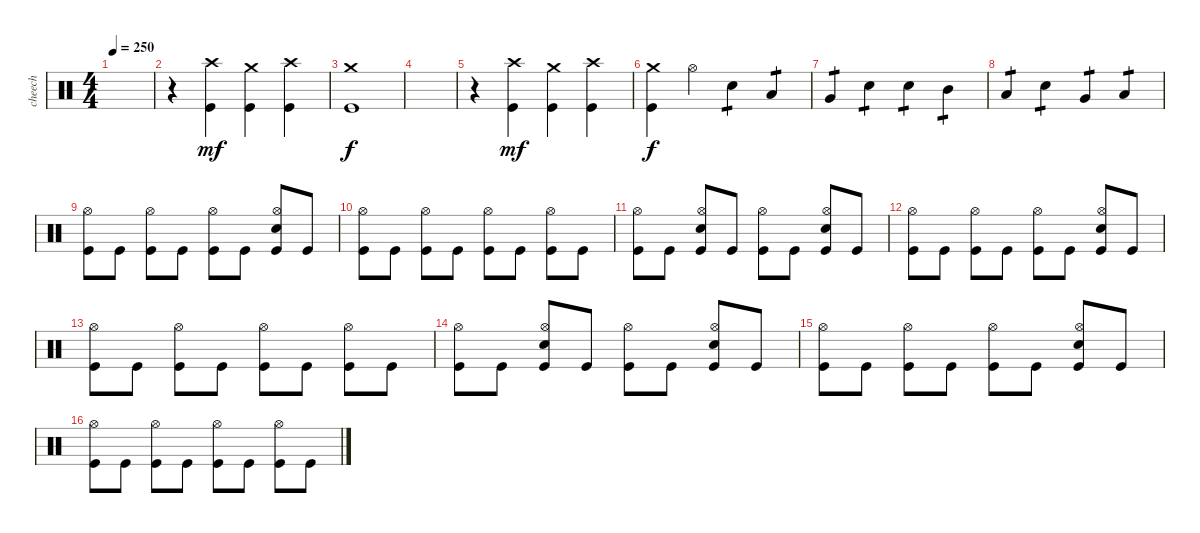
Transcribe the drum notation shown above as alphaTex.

\track ("cheech" "cheech") {instrument percussion}
\staff {score}
\articulation defaults
\ts (4 4)
\tempo 250
\clef neutral
\ks c
|
r.4 ("Crash high (hit)" "Kick (hit)").4{dy mf} ("Crash medium (hit)" "Kick (hit)").4 ("Crash high (hit)" "Kick (hit)").4 |
("Crash medium (hit)" "Kick (hit)").1{dy f} |
|
r.4 ("Crash high (hit)" "Kick (hit)").4{dy mf} ("Crash medium (hit)" "Kick (hit)").4 ("Crash high (hit)" "Kick (hit)").4 |
("Crash medium (hit)" "Kick (hit)").4{dy f} "Hi-Hat (open)".4 "Electric Snare (hit)".4{tp 1} "Low Tom (hit)".4{tp 1} |
"Very Low Tom (hit)".4{tp 1} "Electric Snare (hit)".4{tp 1} "Electric Snare (hit)".4{tp 1} "Mid Tom (hit)".4{tp 1} |
"Low Tom (hit)".4{tp 1} "Electric Snare (hit)".4{tp 1} "Very Low Tom (hit)".4{tp 1} "Low Floor Tom (hit)".4{tp 1} |
("Hi-Hat (open)" "Kick (hit)").8 "Kick (hit)".8 ("Hi-Hat (open)" "Kick (hit)").8 "Kick (hit)".8 ("Hi-Hat (open)" "Kick (hit)").8 "Kick (hit)".8 ("Hi-Hat (open)" "Electric Snare (hit)" "Kick (hit)").8 "Kick (hit)".8 |
("Hi-Hat (open)" "Kick (hit)").8 "Kick (hit)".8 ("Hi-Hat (open)" "Kick (hit)").8 "Kick (hit)".8 ("Hi-Hat (open)" "Kick (hit)").8 "Kick (hit)".8 ("Hi-Hat (open)" "Kick (hit)").8 "Kick (hit)".8 |
("Hi-Hat (open)" "Kick (hit)").8 "Kick (hit)".8 ("Hi-Hat (open)" "Electric Snare (hit)" "Kick (hit)").8 "Kick (hit)".8 ("Hi-Hat (open)" "Kick (hit)").8 "Kick (hit)".8 ("Hi-Hat (open)" "Electric Snare (hit)" "Kick (hit)").8 "Kick (hit)".8 |
("Hi-Hat (open)" "Kick (hit)").8 "Kick (hit)".8 ("Hi-Hat (open)" "Kick (hit)").8 "Kick (hit)".8 ("Hi-Hat (open)" "Kick (hit)").8 "Kick (hit)".8 ("Hi-Hat (open)" "Electric Snare (hit)" "Kick (hit)").8 "Kick (hit)".8 |
("Hi-Hat (open)" "Kick (hit)").8 "Kick (hit)".8 ("Hi-Hat (open)" "Kick (hit)").8 "Kick (hit)".8 ("Hi-Hat (open)" "Kick (hit)").8 "Kick (hit)".8 ("Hi-Hat (open)" "Kick (hit)").8 "Kick (hit)".8 |
("Hi-Hat (open)" "Kick (hit)").8 "Kick (hit)".8 ("Hi-Hat (open)" "Electric Snare (hit)" "Kick (hit)").8 "Kick (hit)".8 ("Hi-Hat (open)" "Kick (hit)").8 "Kick (hit)".8 ("Hi-Hat (open)" "Electric Snare (hit)" "Kick (hit)").8 "Kick (hit)".8 |
("Hi-Hat (open)" "Kick (hit)").8 "Kick (hit)".8 ("Hi-Hat (open)" "Kick (hit)").8 "Kick (hit)".8 ("Hi-Hat (open)" "Kick (hit)").8 "Kick (hit)".8 ("Hi-Hat (open)" "Electric Snare (hit)" "Kick (hit)").8 "Kick (hit)".8 |
("Hi-Hat (open)" "Kick (hit)").8 "Kick (hit)".8 ("Hi-Hat (open)" "Kick (hit)").8 "Kick (hit)".8 ("Hi-Hat (open)" "Kick (hit)").8 "Kick (hit)".8 ("Hi-Hat (open)" "Kick (hit)").8 "Kick (hit)".8
